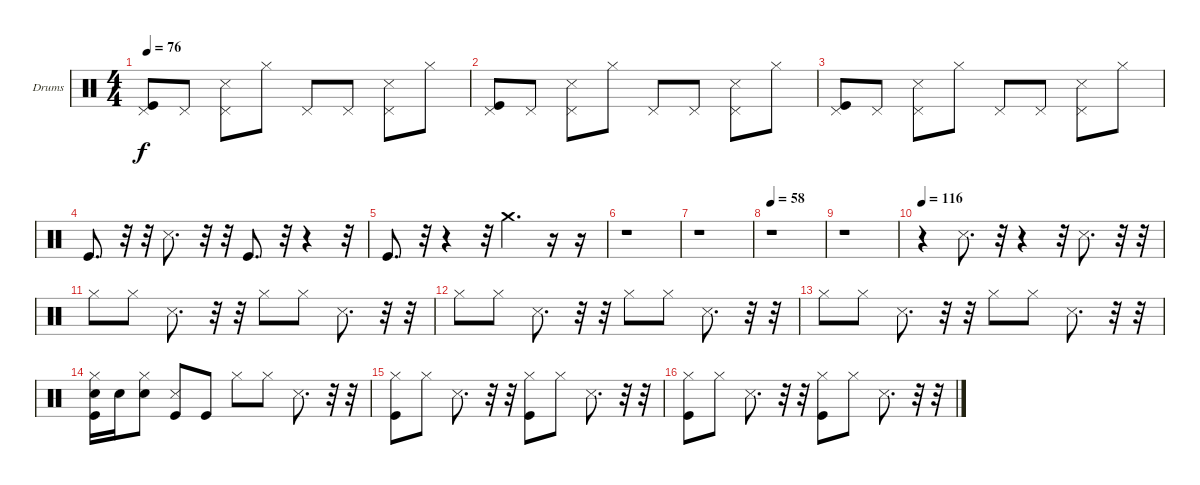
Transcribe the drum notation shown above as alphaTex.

\bracketExtendMode groupsimilarinstruments
\firstSystemTrackNameOrientation horizontal
\otherSystemsTrackNameOrientation horizontal
\track ("Drumkit" "Drums") {instrument percussion}
\staff {score}
\articulation defaults
\ts (4 4)
\tempo 76
\clef neutral
\ks c
("Kick (hit)" "Pedal Hi-Hat (hit)").8{dy f} "Pedal Hi-Hat (hit)".8 ("Snare (side stick) 3" "Pedal Hi-Hat (hit)").8 "Hi-Hat (closed)".8 "Pedal Hi-Hat (hit)".8 "Pedal Hi-Hat (hit)".8 ("Snare (side stick) 3" "Pedal Hi-Hat (hit)").8 "Hi-Hat (closed)".8 |
("Kick (hit)" "Pedal Hi-Hat (hit)").8 "Pedal Hi-Hat (hit)".8 ("Snare (side stick) 3" "Pedal Hi-Hat (hit)").8 "Hi-Hat (closed)".8 "Pedal Hi-Hat (hit)".8 "Pedal Hi-Hat (hit)".8 ("Snare (side stick) 3" "Pedal Hi-Hat (hit)").8 "Hi-Hat (closed)".8 |
("Kick (hit)" "Pedal Hi-Hat (hit)").8 "Pedal Hi-Hat (hit)".8 ("Snare (side stick) 3" "Pedal Hi-Hat (hit)").8 "Hi-Hat (closed)".8 "Pedal Hi-Hat (hit)".8 "Pedal Hi-Hat (hit)".8 ("Snare (side stick) 3" "Pedal Hi-Hat (hit)").8 "Hi-Hat (closed)".8 |
"Kick (hit)".8{d} r.32 r.32 "Snare (side stick) 3".8{d} r.32 r.32 "Kick (hit)".8{d} r.32 r.4 r.32 |
"Kick (hit)".8{d} r.32 r.4 r.32 "Crash medium (hit)".4{d} r.16 r.16 |
r.1 |
r.1 |
\tempo 58
r.1 |
r.1 |
\tempo 116
r.4 "Snare (side stick) 3".8{d} r.32 r.4 r.32 "Snare (side stick) 3".8{d} r.32 r.32 |
"Hi-Hat (closed)".8 "Hi-Hat (closed)".8 "Snare (side stick) 3".8{d} r.32 r.32 "Hi-Hat (closed)".8 "Hi-Hat (closed)".8 "Snare (side stick) 3".8{d} r.32 r.32 |
"Hi-Hat (closed)".8 "Hi-Hat (closed)".8 "Snare (side stick) 3".8{d} r.32 r.32 "Hi-Hat (closed)".8 "Hi-Hat (closed)".8 "Snare (side stick) 3".8{d} r.32 r.32 |
"Hi-Hat (closed)".8 "Hi-Hat (closed)".8 "Snare (side stick) 3".8{d} r.32 r.32 "Hi-Hat (closed)".8 "Hi-Hat (closed)".8 "Snare (side stick) 3".8{d} r.32 r.32 |
("Kick (hit)" "Snare (hit) 2" "Hi-Hat (closed)").16 "Snare (hit) 2".16 ("Snare (hit) 2" "Hi-Hat (closed)").8 ("Snare (side stick) 3" "Kick (hit)").8 "Kick (hit)".8 "Hi-Hat (closed)".8 "Hi-Hat (closed)".8 "Snare (side stick) 3".8{d} r.32 r.32 |
("Kick (hit)" "Hi-Hat (closed)").8 "Hi-Hat (closed)".8 "Snare (side stick) 3".8{d} r.32 r.32 ("Kick (hit)" "Hi-Hat (closed)").8 "Hi-Hat (closed)".8 "Snare (side stick) 3".8{d} r.32 r.32 |
("Kick (hit)" "Hi-Hat (closed)").8 "Hi-Hat (closed)".8 "Snare (side stick) 3".8{d} r.32 r.32 ("Kick (hit)" "Hi-Hat (closed)").8 "Hi-Hat (closed)".8 "Snare (side stick) 3".8{d} r.32 r.32
